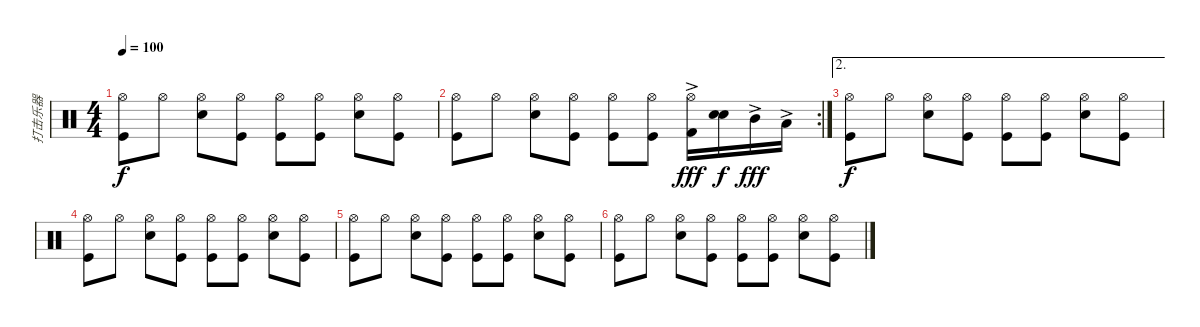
\track ("打击乐器" "打击乐器") {instrument percussion}
\staff {score}
\articulation defaults
\ts (4 4)
\tempo 100
\clef neutral
\ks c
("Hi-Hat (open)" "Kick (hit)").8{dy f} "Hi-Hat (open)".8 ("Hi-Hat (open)" "Snare (hit) 2").8 ("Hi-Hat (open)" "Kick (hit)").8 ("Hi-Hat (open)" "Kick (hit)").8 ("Hi-Hat (open)" "Kick (hit)").8 ("Hi-Hat (open)" "Snare (hit) 2").8 ("Hi-Hat (open)" "Kick (hit)").8 |
\rc 2
("Hi-Hat (open)" "Kick (hit)").8 "Hi-Hat (open)".8 ("Hi-Hat (open)" "Snare (hit) 2").8 ("Hi-Hat (open)" "Kick (hit)").8 ("Hi-Hat (open)" "Kick (hit)").8 ("Hi-Hat (open)" "Kick (hit)").8 ("Hi-Hat (open)" "Kick (hit) 2"{ac}).16{dy fff} ("Snare (hit) 2" "Snare (hit) 2").16{dy f} "Mid Tom (hit)"{ac}.16{dy fff} "Low Tom (hit)"{ac}.16 |
\ae 2
("Hi-Hat (open)" "Kick (hit)").8{dy f} "Hi-Hat (open)".8 ("Hi-Hat (open)" "Snare (hit) 2").8 ("Hi-Hat (open)" "Kick (hit)").8 ("Hi-Hat (open)" "Kick (hit)").8 ("Hi-Hat (open)" "Kick (hit)").8 ("Hi-Hat (open)" "Snare (hit) 2").8 ("Hi-Hat (open)" "Kick (hit)").8 |
("Hi-Hat (open)" "Kick (hit)").8 "Hi-Hat (open)".8 ("Hi-Hat (open)" "Snare (hit) 2").8 ("Hi-Hat (open)" "Kick (hit)").8 ("Hi-Hat (open)" "Kick (hit)").8 ("Hi-Hat (open)" "Kick (hit)").8 ("Hi-Hat (open)" "Snare (hit) 2").8 ("Hi-Hat (open)" "Kick (hit)").8 |
("Hi-Hat (open)" "Kick (hit)").8 "Hi-Hat (open)".8 ("Hi-Hat (open)" "Snare (hit) 2").8 ("Hi-Hat (open)" "Kick (hit)").8 ("Hi-Hat (open)" "Kick (hit)").8 ("Hi-Hat (open)" "Kick (hit)").8 ("Hi-Hat (open)" "Snare (hit) 2").8 ("Hi-Hat (open)" "Kick (hit)").8 |
("Hi-Hat (open)" "Kick (hit)").8 "Hi-Hat (open)".8 ("Hi-Hat (open)" "Snare (hit) 2").8 ("Hi-Hat (open)" "Kick (hit)").8 ("Hi-Hat (open)" "Kick (hit)").8 ("Hi-Hat (open)" "Kick (hit)").8 ("Hi-Hat (open)" "Snare (hit) 2").8 ("Hi-Hat (open)" "Kick (hit)").8
